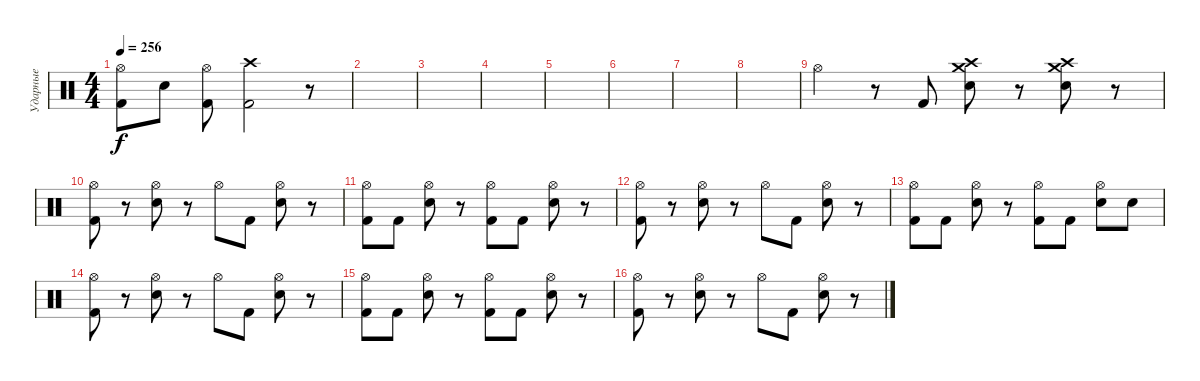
\track ("Ударные" "Ударные") {instrument percussion}
\staff {score}
\articulation defaults
\ts (4 4)
\tempo 256
\clef neutral
\ks c
("Hi-Hat (open)" "Kick (hit) 2").8{dy f} "Electric Snare (hit)".8 ("Hi-Hat (open)" "Kick (hit) 2").8 ("Crash high (hit)" "Kick (hit) 2").2 r.8 |
|
|
|
|
|
|
|
"Hi-Hat (open)".4 r.8 "Kick (hit) 2".8 ("Crash high (hit)" "Crash medium (hit)" "Electric Snare (hit)").8 r.8 ("Crash high (hit)" "Crash medium (hit)" "Electric Snare (hit)").8 r.8 |
("Hi-Hat (open)" "Kick (hit) 2").8 r.8 ("Hi-Hat (open)" "Electric Snare (hit)").8 r.8 "Hi-Hat (open)".8 "Kick (hit) 2".8 ("Hi-Hat (open)" "Electric Snare (hit)").8 r.8 |
("Hi-Hat (open)" "Kick (hit) 2").8 "Kick (hit) 2".8 ("Hi-Hat (open)" "Electric Snare (hit)").8 r.8 ("Hi-Hat (open)" "Kick (hit) 2").8 "Kick (hit) 2".8 ("Hi-Hat (open)" "Electric Snare (hit)").8 r.8 |
("Hi-Hat (open)" "Kick (hit) 2").8 r.8 ("Hi-Hat (open)" "Electric Snare (hit)").8 r.8 "Hi-Hat (open)".8 "Kick (hit) 2".8 ("Hi-Hat (open)" "Electric Snare (hit)").8 r.8 |
("Hi-Hat (open)" "Kick (hit) 2").8 "Kick (hit) 2".8 ("Hi-Hat (open)" "Electric Snare (hit)").8 r.8 ("Hi-Hat (open)" "Kick (hit) 2").8 "Kick (hit) 2".8 ("Hi-Hat (open)" "Electric Snare (hit)").8 "Electric Snare (hit)".8 |
("Hi-Hat (open)" "Kick (hit) 2").8 r.8 ("Hi-Hat (open)" "Electric Snare (hit)").8 r.8 "Hi-Hat (open)".8 "Kick (hit) 2".8 ("Hi-Hat (open)" "Electric Snare (hit)").8 r.8 |
("Hi-Hat (open)" "Kick (hit) 2").8 "Kick (hit) 2".8 ("Hi-Hat (open)" "Electric Snare (hit)").8 r.8 ("Hi-Hat (open)" "Kick (hit) 2").8 "Kick (hit) 2".8 ("Hi-Hat (open)" "Electric Snare (hit)").8 r.8 |
("Hi-Hat (open)" "Kick (hit) 2").8 r.8 ("Hi-Hat (open)" "Electric Snare (hit)").8 r.8 "Hi-Hat (open)".8 "Kick (hit) 2".8 ("Hi-Hat (open)" "Electric Snare (hit)").8 r.8
